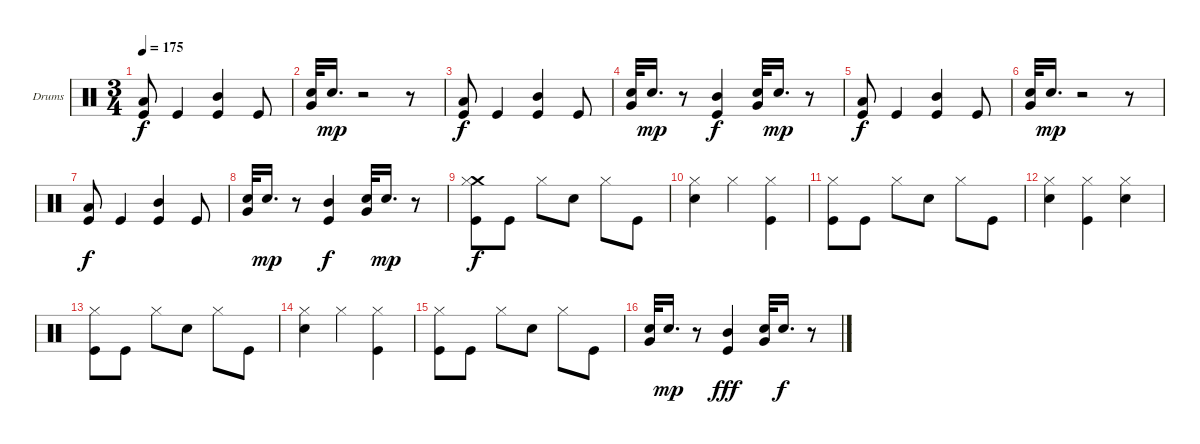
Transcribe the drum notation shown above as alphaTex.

\bracketExtendMode groupsimilarinstruments
\firstSystemTrackNameOrientation horizontal
\otherSystemsTrackNameOrientation horizontal
\track ("Drums" "Drums") {instrument percussion}
\staff {score}
\articulation defaults
\ts (3 4)
\tempo 175
\clef neutral
\ks c
("Low Tom (hit)" "Kick (hit)").8{dy f} "Kick (hit)".4 ("Mid Tom (hit)" "Kick (hit)").4 "Kick (hit)".8 |
("Very Low Tom (hit)" "Snare (hit) 2").32 "Snare (hit) 2".16{d dy mp} r.2 r.8 |
("Low Tom (hit)" "Kick (hit)").8{dy f} "Kick (hit)".4 ("Mid Tom (hit)" "Kick (hit)").4 "Kick (hit)".8 |
("Very Low Tom (hit)" "Snare (hit) 2").32 "Snare (hit) 2".16{d dy mp} r.8 ("Mid Tom (hit)" "Kick (hit)").4{dy f} ("Very Low Tom (hit)" "Snare (hit) 2").32 "Snare (hit) 2".16{d dy mp} r.8 |
("Low Tom (hit)" "Kick (hit)").8{dy f} "Kick (hit)".4 ("Mid Tom (hit)" "Kick (hit)").4 "Kick (hit)".8 |
("Very Low Tom (hit)" "Snare (hit) 2").32 "Snare (hit) 2".16{d dy mp} r.2 r.8 |
("Low Tom (hit)" "Kick (hit)").8{dy f} "Kick (hit)".4 ("Mid Tom (hit)" "Kick (hit)").4 "Kick (hit)".8 |
("Very Low Tom (hit)" "Snare (hit) 2").32 "Snare (hit) 2".16{d dy mp} r.8 ("Mid Tom (hit)" "Kick (hit)").4{dy f} ("Very Low Tom (hit)" "Snare (hit) 2").32 "Snare (hit) 2".16{d dy mp} r.8 |
("Crash medium (hit)" "Hi-Hat (closed)" "Kick (hit)").8{dy f} "Kick (hit)".8 "Hi-Hat (closed)".8 "Snare (hit) 2".8 "Hi-Hat (closed)".8 "Kick (hit)".8 |
("Hi-Hat (closed)" "Snare (hit) 2").4 "Hi-Hat (closed)".4 ("Hi-Hat (closed)" "Kick (hit)").4 |
("Hi-Hat (closed)" "Kick (hit)").8 "Kick (hit)".8 "Hi-Hat (closed)".8 "Snare (hit) 2".8 "Hi-Hat (closed)".8 "Kick (hit)".8 |
("Hi-Hat (closed)" "Snare (hit) 2").4 ("Hi-Hat (closed)" "Kick (hit)").4 ("Hi-Hat (closed)" "Snare (hit) 2").4 |
("Hi-Hat (closed)" "Kick (hit)").8 "Kick (hit)".8 "Hi-Hat (closed)".8 "Snare (hit) 2".8 "Hi-Hat (closed)".8 "Kick (hit)".8 |
("Hi-Hat (closed)" "Snare (hit) 2").4 "Hi-Hat (closed)".4 ("Hi-Hat (closed)" "Kick (hit)").4 |
("Hi-Hat (closed)" "Kick (hit)").8 "Kick (hit)".8 "Hi-Hat (closed)".8 "Snare (hit) 2".8 "Hi-Hat (closed)".8 "Kick (hit)".8 |
("Very Low Tom (hit)" "Snare (hit) 2").32 "Snare (hit) 2".16{d dy mp} r.8 ("Mid Tom (hit)" "Kick (hit)").4{dy fff} ("Very Low Tom (hit)" "Snare (hit) 2").32 "Snare (hit) 2".16{d dy f} r.8
